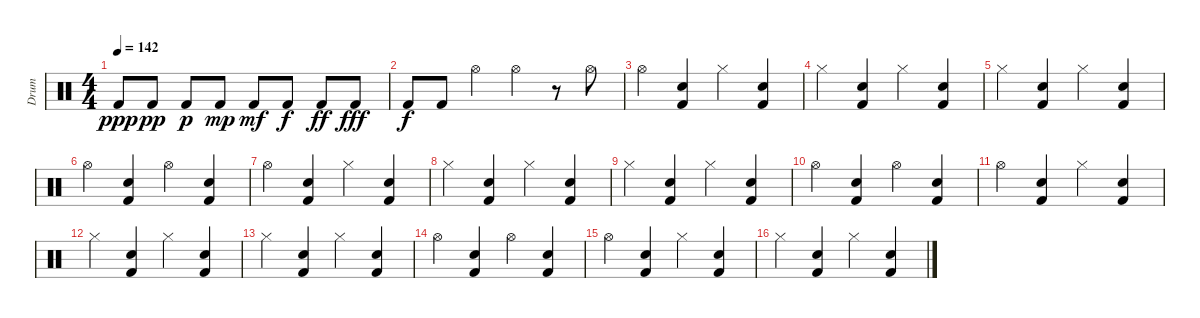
\track ("Drum" "Drum") {instrument percussion}
\staff {score}
\articulation defaults
\ts (4 4)
\tempo 142
\clef neutral
\ks c "Kick (hit) 2".8{dy ppp} "Kick (hit) 2".8{dy pp} "Kick (hit) 2".8{dy p} "Kick (hit) 2".8{dy mp} "Kick (hit) 2".8{dy mf} "Kick (hit) 2".8{dy f} "Kick (hit) 2".8{dy ff} "Kick (hit) 2".8{dy fff}
|
"Kick (hit) 2".8{dy f} "Kick (hit) 2".8 "Hi-Hat (open)".4 "Hi-Hat (open)".4 r.8 "Hi-Hat (open)".8 |
"Hi-Hat (open)".4 ("Electric Snare (hit)" "Kick (hit) 2").4 "Hi-Hat (closed)".4 ("Electric Snare (hit)" "Kick (hit) 2").4 |
"Hi-Hat (closed)".4 ("Electric Snare (hit)" "Kick (hit) 2").4 "Hi-Hat (closed)".4 ("Electric Snare (hit)" "Kick (hit) 2").4 |
"Hi-Hat (closed)".4 ("Electric Snare (hit)" "Kick (hit) 2").4 "Hi-Hat (closed)".4 ("Electric Snare (hit)" "Kick (hit) 2").4 |
"Hi-Hat (open)".4 ("Electric Snare (hit)" "Kick (hit) 2").4 "Hi-Hat (open)".4 ("Electric Snare (hit)" "Kick (hit) 2").4 |
"Hi-Hat (open)".4 ("Electric Snare (hit)" "Kick (hit) 2").4 "Hi-Hat (closed)".4 ("Electric Snare (hit)" "Kick (hit) 2").4 |
"Hi-Hat (closed)".4 ("Electric Snare (hit)" "Kick (hit) 2").4 "Hi-Hat (closed)".4 ("Electric Snare (hit)" "Kick (hit) 2").4 |
"Hi-Hat (closed)".4 ("Electric Snare (hit)" "Kick (hit) 2").4 "Hi-Hat (closed)".4 ("Electric Snare (hit)" "Kick (hit) 2").4 |
"Hi-Hat (open)".4 ("Electric Snare (hit)" "Kick (hit) 2").4 "Hi-Hat (open)".4 ("Electric Snare (hit)" "Kick (hit) 2").4 |
"Hi-Hat (open)".4 ("Electric Snare (hit)" "Kick (hit) 2").4 "Hi-Hat (closed)".4 ("Electric Snare (hit)" "Kick (hit) 2").4 |
"Hi-Hat (closed)".4 ("Electric Snare (hit)" "Kick (hit) 2").4 "Hi-Hat (closed)".4 ("Electric Snare (hit)" "Kick (hit) 2").4 |
"Hi-Hat (closed)".4 ("Electric Snare (hit)" "Kick (hit) 2").4 "Hi-Hat (closed)".4 ("Electric Snare (hit)" "Kick (hit) 2").4 |
"Hi-Hat (open)".4 ("Electric Snare (hit)" "Kick (hit) 2").4 "Hi-Hat (open)".4 ("Electric Snare (hit)" "Kick (hit) 2").4 |
"Hi-Hat (open)".4 ("Electric Snare (hit)" "Kick (hit) 2").4 "Hi-Hat (closed)".4 ("Electric Snare (hit)" "Kick (hit) 2").4 |
"Hi-Hat (closed)".4 ("Electric Snare (hit)" "Kick (hit) 2").4 "Hi-Hat (closed)".4 ("Electric Snare (hit)" "Kick (hit) 2").4
